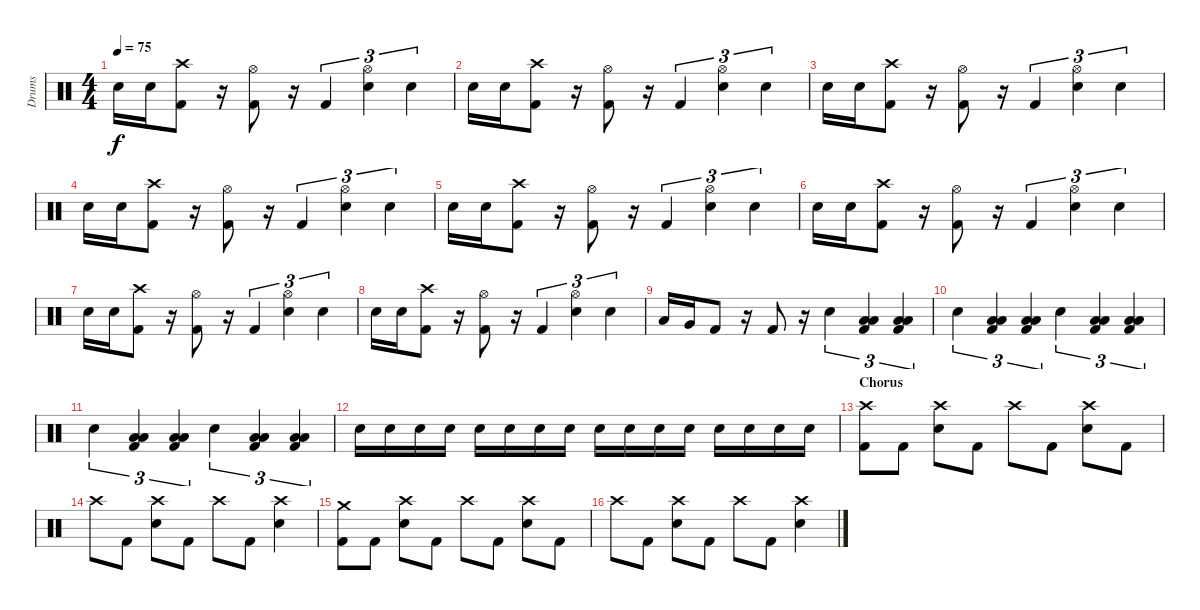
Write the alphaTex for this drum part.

\track ("Drums" "Drums") {instrument percussion}
\staff {score}
\articulation defaults
\ts (4 4)
\tempo 75
\clef neutral
\ks c "Snare (hit) 2".16{dy f} "Snare (hit) 2".16
("Crash high (hit)" "Kick (hit) 2").8 r.16 ("Hi-Hat (open)" "Kick (hit) 2").8 r.16 "Kick (hit) 2".4{tu (3 2)} ("Hi-Hat (open)" "Snare (hit) 2").4{tu (3 2)} "Snare (hit) 2".4{tu (3 2)} |
"Snare (hit) 2".16 "Snare (hit) 2".16 ("Crash high (hit)" "Kick (hit) 2").8 r.16 ("Hi-Hat (open)" "Kick (hit) 2").8 r.16 "Kick (hit) 2".4{tu (3 2)} ("Hi-Hat (open)" "Snare (hit) 2").4{tu (3 2)} "Snare (hit) 2".4{tu (3 2)} |
"Snare (hit) 2".16 "Snare (hit) 2".16 ("Crash high (hit)" "Kick (hit) 2").8 r.16 ("Hi-Hat (open)" "Kick (hit) 2").8 r.16 "Kick (hit) 2".4{tu (3 2)} ("Hi-Hat (open)" "Snare (hit) 2").4{tu (3 2)} "Snare (hit) 2".4{tu (3 2)} |
"Snare (hit) 2".16 "Snare (hit) 2".16 ("Crash high (hit)" "Kick (hit) 2").8 r.16 ("Hi-Hat (open)" "Kick (hit) 2").8 r.16 "Kick (hit) 2".4{tu (3 2)} ("Hi-Hat (open)" "Snare (hit) 2").4{tu (3 2)} "Snare (hit) 2".4{tu (3 2)} |
"Snare (hit) 2".16 "Snare (hit) 2".16 ("Crash high (hit)" "Kick (hit) 2").8 r.16 ("Hi-Hat (open)" "Kick (hit) 2").8 r.16 "Kick (hit) 2".4{tu (3 2)} ("Hi-Hat (open)" "Snare (hit) 2").4{tu (3 2)} "Snare (hit) 2".4{tu (3 2)} |
"Snare (hit) 2".16 "Snare (hit) 2".16 ("Crash high (hit)" "Kick (hit) 2").8 r.16 ("Hi-Hat (open)" "Kick (hit) 2").8 r.16 "Kick (hit) 2".4{tu (3 2)} ("Hi-Hat (open)" "Snare (hit) 2").4{tu (3 2)} "Snare (hit) 2".4{tu (3 2)} |
"Snare (hit) 2".16 "Snare (hit) 2".16 ("Crash high (hit)" "Kick (hit) 2").8 r.16 ("Hi-Hat (open)" "Kick (hit) 2").8 r.16 "Kick (hit) 2".4{tu (3 2)} ("Hi-Hat (open)" "Snare (hit) 2").4{tu (3 2)} "Snare (hit) 2".4{tu (3 2)} |
"Snare (hit) 2".16 "Snare (hit) 2".16 ("Crash high (hit)" "Kick (hit) 2").8 r.16 ("Hi-Hat (open)" "Kick (hit) 2").8 r.16 "Kick (hit) 2".4{tu (3 2)} ("Hi-Hat (open)" "Snare (hit) 2").4{tu (3 2)} "Snare (hit) 2".4{tu (3 2)} |
"Low Tom (hit)".16 "Very Low Tom (hit)".16 "Kick (hit) 2".8 r.16 "Kick (hit) 2".8 r.16 "Snare (hit) 2".4{tu (3 2)} ("Low Tom (hit)" "Low Floor Tom (hit)" "Kick (hit) 2").4{tu (3 2)} ("Low Tom (hit)" "Low Floor Tom (hit)" "Kick (hit) 2").4{tu (3 2)} |
"Snare (hit) 2".4{tu (3 2)} ("Low Tom (hit)" "Low Floor Tom (hit)" "Kick (hit) 2").4{tu (3 2)} ("Low Tom (hit)" "Low Floor Tom (hit)" "Kick (hit) 2").4{tu (3 2)} "Snare (hit) 2".4{tu (3 2)} ("Low Tom (hit)" "Low Floor Tom (hit)" "Kick (hit) 2").4{tu (3 2)} ("Low Tom (hit)" "Low Floor Tom (hit)" "Kick (hit) 2").4{tu (3 2)} |
"Snare (hit) 2".4{tu (3 2)} ("Low Tom (hit)" "Low Floor Tom (hit)" "Kick (hit) 2").4{tu (3 2)} ("Low Tom (hit)" "Low Floor Tom (hit)" "Kick (hit) 2").4{tu (3 2)} "Snare (hit) 2".4{tu (3 2)} ("Low Tom (hit)" "Low Floor Tom (hit)" "Kick (hit) 2").4{tu (3 2)} ("Low Tom (hit)" "Low Floor Tom (hit)" "Kick (hit) 2").4{tu (3 2)} |
"Snare (hit) 2".16 "Snare (hit) 2".16 "Snare (hit) 2".16 "Snare (hit) 2".16 "Snare (hit) 2".16 "Snare (hit) 2".16 "Snare (hit) 2".16 "Snare (hit) 2".16 "Snare (hit) 2".16 "Snare (hit) 2".16 "Snare (hit) 2".16 "Snare (hit) 2".16 "Snare (hit) 2".16 "Snare (hit) 2".16 "Snare (hit) 2".16 "Snare (hit) 2".16 |
\section ("" "Chorus")
("Crash high (hit)" "Kick (hit) 2").8 "Kick (hit) 2".8 ("Crash high (hit)" "Snare (hit) 2").8 "Kick (hit) 2".8 "Crash high (hit)".8 "Kick (hit) 2".8 ("Crash high (hit)" "Snare (hit) 2").8 "Kick (hit) 2".8 |
"Crash high (hit)".8 "Kick (hit) 2".8 ("Crash high (hit)" "Snare (hit) 2").8 "Kick (hit) 2".8 "Crash high (hit)".8 "Kick (hit) 2".8 ("Crash high (hit)" "Snare (hit) 2").4 |
("Crash medium (hit)" "Kick (hit) 2").8 "Kick (hit) 2".8 ("Crash high (hit)" "Snare (hit) 2").8 "Kick (hit) 2".8 "Crash high (hit)".8 "Kick (hit) 2".8 ("Crash high (hit)" "Snare (hit) 2").8 "Kick (hit) 2".8 |
"Crash high (hit)".8 "Kick (hit) 2".8 ("Crash high (hit)" "Snare (hit) 2").8 "Kick (hit) 2".8 "Crash high (hit)".8 "Kick (hit) 2".8 ("Crash high (hit)" "Snare (hit) 2").4
